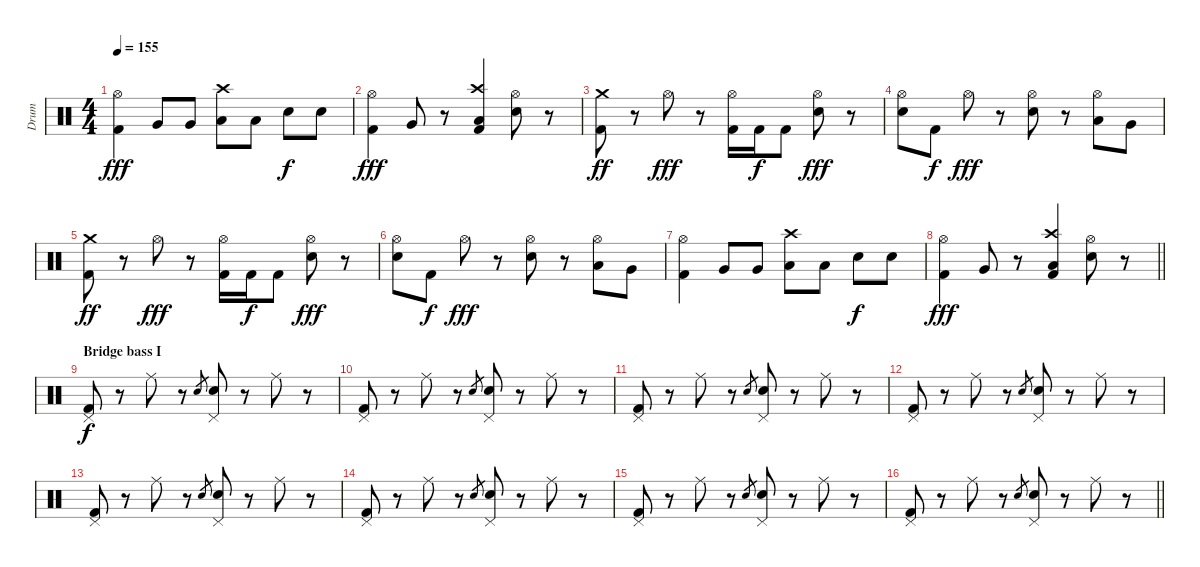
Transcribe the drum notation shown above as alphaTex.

\track ("Drum" "Drum") {instrument percussion}
\staff {score}
\articulation defaults
\ts (4 4)
\tempo 155
\clef neutral
\ks c
("Hi-Hat (open)" "Kick (hit) 2").4{dy fff} "Very Low Tom (hit)".8 "Very Low Tom (hit)".8 ("Crash high (hit)" "Low Tom (hit)").8 "Low Tom (hit)".8 "Snare (hit) 2".8{dy f} "Snare (hit) 2".8 |
("Hi-Hat (open)" "Kick (hit) 2").4{dy fff} "Very Low Tom (hit)".8 r.8 ("Crash high (hit)" "Low Tom (hit)" "Kick (hit) 2").4 ("Hi-Hat (open)" "Snare (hit) 2").8 r.8 |
("Crash medium (hit)" "Kick (hit) 2").8{dy ff} r.8 "Hi-Hat (open)".8{dy fff} r.8 ("Hi-Hat (open)" "Kick (hit) 2").16 "Kick (hit) 2".16{dy f} "Kick (hit) 2".8 ("Hi-Hat (open)" "Snare (hit) 2").8{dy fff} r.8 |
("Hi-Hat (open)" "Snare (hit) 2").8 "Kick (hit) 2".8{dy f} "Hi-Hat (open)".8{dy fff} r.8 ("Hi-Hat (open)" "Snare (hit) 2").8 r.8 ("Hi-Hat (open)" "Low Floor Tom (hit)").8 "Very Low Tom (hit)".8 |
("Crash medium (hit)" "Kick (hit) 2").8{dy ff} r.8 "Hi-Hat (open)".8{dy fff} r.8 ("Hi-Hat (open)" "Kick (hit) 2").16 "Kick (hit) 2".16{dy f} "Kick (hit) 2".8 ("Hi-Hat (open)" "Snare (hit) 2").8{dy fff} r.8 |
("Hi-Hat (open)" "Snare (hit) 2").8 "Kick (hit) 2".8{dy f} "Hi-Hat (open)".8{dy fff} r.8 ("Hi-Hat (open)" "Snare (hit) 2").8 r.8 ("Hi-Hat (open)" "Low Floor Tom (hit)").8 "Very Low Tom (hit)".8 |
("Hi-Hat (open)" "Kick (hit) 2").4 "Very Low Tom (hit)".8 "Very Low Tom (hit)".8 ("Crash high (hit)" "Low Tom (hit)").8 "Low Tom (hit)".8 "Snare (hit) 2".8{dy f} "Snare (hit) 2".8 |
\barLineRight lightlight
("Hi-Hat (open)" "Kick (hit) 2").4{dy fff} "Very Low Tom (hit)".8 r.8 ("Crash high (hit)" "Low Tom (hit)" "Kick (hit) 2").4 ("Hi-Hat (open)" "Snare (hit) 2").8 r.8 |
\section ("" "Bridge bass I")
("Pedal Hi-Hat (hit)" "Kick (hit) 2").8{dy f} r.8 "Ride (middle)".8 r.8 "Snare (hit) 2".8{gr} ("Pedal Hi-Hat (hit)" "Snare (hit) 2").8 r.8 "Ride (middle)".8 r.8 |
("Pedal Hi-Hat (hit)" "Kick (hit) 2").8 r.8 "Ride (middle)".8 r.8 "Snare (hit) 2".8{gr} ("Pedal Hi-Hat (hit)" "Snare (hit) 2").8 r.8 "Ride (middle)".8 r.8 |
("Pedal Hi-Hat (hit)" "Kick (hit) 2").8 r.8 "Ride (middle)".8 r.8 "Snare (hit) 2".8{gr} ("Pedal Hi-Hat (hit)" "Snare (hit) 2").8 r.8 "Ride (middle)".8 r.8 |
("Pedal Hi-Hat (hit)" "Kick (hit) 2").8 r.8 "Ride (middle)".8 r.8 "Snare (hit) 2".8{gr} ("Pedal Hi-Hat (hit)" "Snare (hit) 2").8 r.8 "Ride (middle)".8 r.8 |
("Pedal Hi-Hat (hit)" "Kick (hit) 2").8 r.8 "Ride (middle)".8 r.8 "Snare (hit) 2".8{gr} ("Pedal Hi-Hat (hit)" "Snare (hit) 2").8 r.8 "Ride (middle)".8 r.8 |
("Pedal Hi-Hat (hit)" "Kick (hit) 2").8 r.8 "Ride (middle)".8 r.8 "Snare (hit) 2".8{gr} ("Pedal Hi-Hat (hit)" "Snare (hit) 2").8 r.8 "Ride (middle)".8 r.8 |
("Pedal Hi-Hat (hit)" "Kick (hit) 2").8 r.8 "Ride (middle)".8 r.8 "Snare (hit) 2".8{gr} ("Pedal Hi-Hat (hit)" "Snare (hit) 2").8 r.8 "Ride (middle)".8 r.8 |
\barLineRight lightlight
("Pedal Hi-Hat (hit)" "Kick (hit) 2").8 r.8 "Ride (middle)".8 r.8 "Snare (hit) 2".8{gr} ("Pedal Hi-Hat (hit)" "Snare (hit) 2").8 r.8 "Ride (middle)".8 r.8
